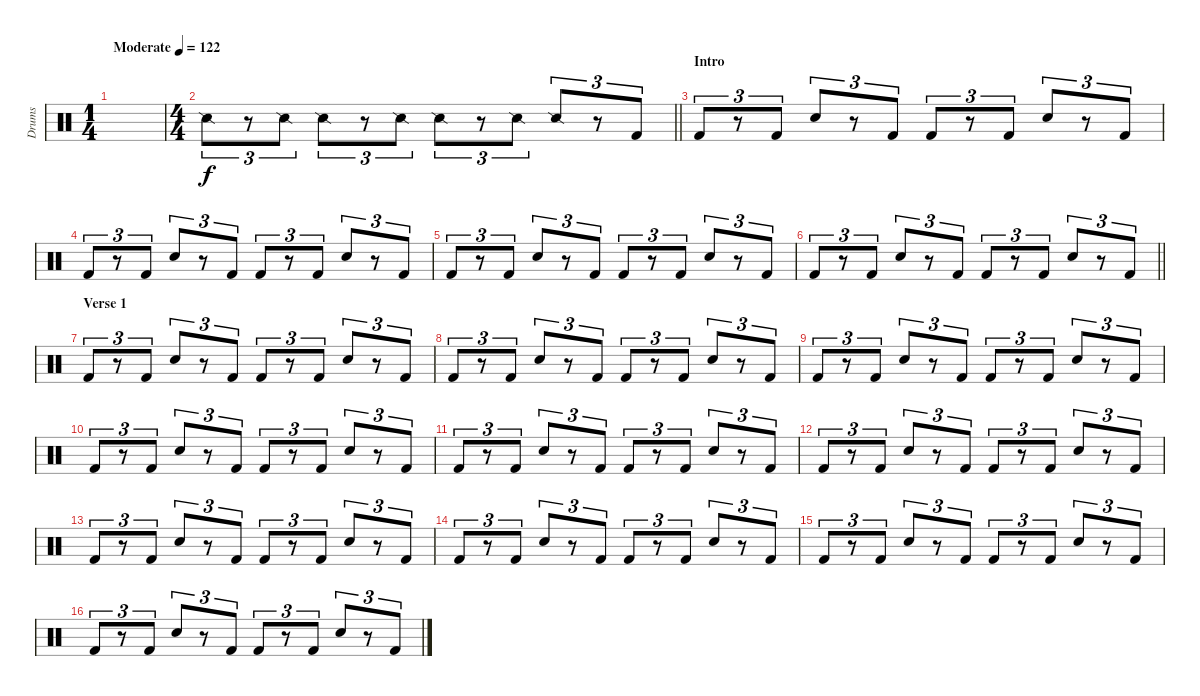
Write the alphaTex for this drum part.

\track ("Drums" "Drums") {instrument percussion}
\staff {score}
\articulation defaults
\ts (1 4)
\tempo (122 "Moderate")
\clef neutral
\ks c
|
\ts (4 4)
\barLineRight lightlight "Snare (side stick) 2".8{tu (3 2)}
r.8{tu (3 2)} "Snare (side stick) 2".8{tu (3 2)} "Snare (side stick) 2".8{tu (3 2)} r.8{tu (3 2)} "Snare (side stick) 2".8{tu (3 2)} "Snare (side stick) 2".8{tu (3 2)} r.8{tu (3 2)} "Snare (side stick) 2".8{tu (3 2)} "Snare (side stick) 2".8{tu (3 2)} r.8{tu (3 2)} "Kick (hit) 2".8{tu (3 2)} |
\section ("" "Intro")
"Kick (hit) 2".8{tu (3 2)} r.8{tu (3 2)} "Kick (hit) 2".8{tu (3 2)} "Snare (hit) 2".8{tu (3 2)} r.8{tu (3 2)} "Kick (hit) 2".8{tu (3 2)} "Kick (hit) 2".8{tu (3 2)} r.8{tu (3 2)} "Kick (hit) 2".8{tu (3 2)} "Snare (hit) 2".8{tu (3 2)} r.8{tu (3 2)} "Kick (hit) 2".8{tu (3 2)} |
"Kick (hit) 2".8{tu (3 2)} r.8{tu (3 2)} "Kick (hit) 2".8{tu (3 2)} "Snare (hit) 2".8{tu (3 2)} r.8{tu (3 2)} "Kick (hit) 2".8{tu (3 2)} "Kick (hit) 2".8{tu (3 2)} r.8{tu (3 2)} "Kick (hit) 2".8{tu (3 2)} "Snare (hit) 2".8{tu (3 2)} r.8{tu (3 2)} "Kick (hit) 2".8{tu (3 2)} |
"Kick (hit) 2".8{tu (3 2)} r.8{tu (3 2)} "Kick (hit) 2".8{tu (3 2)} "Snare (hit) 2".8{tu (3 2)} r.8{tu (3 2)} "Kick (hit) 2".8{tu (3 2)} "Kick (hit) 2".8{tu (3 2)} r.8{tu (3 2)} "Kick (hit) 2".8{tu (3 2)} "Snare (hit) 2".8{tu (3 2)} r.8{tu (3 2)} "Kick (hit) 2".8{tu (3 2)} |
\barLineRight lightlight "Kick (hit) 2".8{tu (3 2)}
r.8{tu (3 2)} "Kick (hit) 2".8{tu (3 2)} "Snare (hit) 2".8{tu (3 2)} r.8{tu (3 2)} "Kick (hit) 2".8{tu (3 2)} "Kick (hit) 2".8{tu (3 2)} r.8{tu (3 2)} "Kick (hit) 2".8{tu (3 2)} "Snare (hit) 2".8{tu (3 2)} r.8{tu (3 2)} "Kick (hit) 2".8{tu (3 2)} |
\section ("" "Verse 1")
"Kick (hit) 2".8{tu (3 2)} r.8{tu (3 2)} "Kick (hit) 2".8{tu (3 2)} "Snare (hit) 2".8{tu (3 2)} r.8{tu (3 2)} "Kick (hit) 2".8{tu (3 2)} "Kick (hit) 2".8{tu (3 2)} r.8{tu (3 2)} "Kick (hit) 2".8{tu (3 2)} "Snare (hit) 2".8{tu (3 2)} r.8{tu (3 2)} "Kick (hit) 2".8{tu (3 2)} |
"Kick (hit) 2".8{tu (3 2)} r.8{tu (3 2)} "Kick (hit) 2".8{tu (3 2)} "Snare (hit) 2".8{tu (3 2)} r.8{tu (3 2)} "Kick (hit) 2".8{tu (3 2)} "Kick (hit) 2".8{tu (3 2)} r.8{tu (3 2)} "Kick (hit) 2".8{tu (3 2)} "Snare (hit) 2".8{tu (3 2)} r.8{tu (3 2)} "Kick (hit) 2".8{tu (3 2)} |
"Kick (hit) 2".8{tu (3 2)} r.8{tu (3 2)} "Kick (hit) 2".8{tu (3 2)} "Snare (hit) 2".8{tu (3 2)} r.8{tu (3 2)} "Kick (hit) 2".8{tu (3 2)} "Kick (hit) 2".8{tu (3 2)} r.8{tu (3 2)} "Kick (hit) 2".8{tu (3 2)} "Snare (hit) 2".8{tu (3 2)} r.8{tu (3 2)} "Kick (hit) 2".8{tu (3 2)} |
"Kick (hit) 2".8{tu (3 2)} r.8{tu (3 2)} "Kick (hit) 2".8{tu (3 2)} "Snare (hit) 2".8{tu (3 2)} r.8{tu (3 2)} "Kick (hit) 2".8{tu (3 2)} "Kick (hit) 2".8{tu (3 2)} r.8{tu (3 2)} "Kick (hit) 2".8{tu (3 2)} "Snare (hit) 2".8{tu (3 2)} r.8{tu (3 2)} "Kick (hit) 2".8{tu (3 2)} |
"Kick (hit) 2".8{tu (3 2)} r.8{tu (3 2)} "Kick (hit) 2".8{tu (3 2)} "Snare (hit) 2".8{tu (3 2)} r.8{tu (3 2)} "Kick (hit) 2".8{tu (3 2)} "Kick (hit) 2".8{tu (3 2)} r.8{tu (3 2)} "Kick (hit) 2".8{tu (3 2)} "Snare (hit) 2".8{tu (3 2)} r.8{tu (3 2)} "Kick (hit) 2".8{tu (3 2)} |
"Kick (hit) 2".8{tu (3 2)} r.8{tu (3 2)} "Kick (hit) 2".8{tu (3 2)} "Snare (hit) 2".8{tu (3 2)} r.8{tu (3 2)} "Kick (hit) 2".8{tu (3 2)} "Kick (hit) 2".8{tu (3 2)} r.8{tu (3 2)} "Kick (hit) 2".8{tu (3 2)} "Snare (hit) 2".8{tu (3 2)} r.8{tu (3 2)} "Kick (hit) 2".8{tu (3 2)} |
"Kick (hit) 2".8{tu (3 2)} r.8{tu (3 2)} "Kick (hit) 2".8{tu (3 2)} "Snare (hit) 2".8{tu (3 2)} r.8{tu (3 2)} "Kick (hit) 2".8{tu (3 2)} "Kick (hit) 2".8{tu (3 2)} r.8{tu (3 2)} "Kick (hit) 2".8{tu (3 2)} "Snare (hit) 2".8{tu (3 2)} r.8{tu (3 2)} "Kick (hit) 2".8{tu (3 2)} |
"Kick (hit) 2".8{tu (3 2)} r.8{tu (3 2)} "Kick (hit) 2".8{tu (3 2)} "Snare (hit) 2".8{tu (3 2)} r.8{tu (3 2)} "Kick (hit) 2".8{tu (3 2)} "Kick (hit) 2".8{tu (3 2)} r.8{tu (3 2)} "Kick (hit) 2".8{tu (3 2)} "Snare (hit) 2".8{tu (3 2)} r.8{tu (3 2)} "Kick (hit) 2".8{tu (3 2)} |
"Kick (hit) 2".8{tu (3 2)} r.8{tu (3 2)} "Kick (hit) 2".8{tu (3 2)} "Snare (hit) 2".8{tu (3 2)} r.8{tu (3 2)} "Kick (hit) 2".8{tu (3 2)} "Kick (hit) 2".8{tu (3 2)} r.8{tu (3 2)} "Kick (hit) 2".8{tu (3 2)} "Snare (hit) 2".8{tu (3 2)} r.8{tu (3 2)} "Kick (hit) 2".8{tu (3 2)} |
"Kick (hit) 2".8{tu (3 2)} r.8{tu (3 2)} "Kick (hit) 2".8{tu (3 2)} "Snare (hit) 2".8{tu (3 2)} r.8{tu (3 2)} "Kick (hit) 2".8{tu (3 2)} "Kick (hit) 2".8{tu (3 2)} r.8{tu (3 2)} "Kick (hit) 2".8{tu (3 2)} "Snare (hit) 2".8{tu (3 2)} r.8{tu (3 2)} "Kick (hit) 2".8{tu (3 2)}
